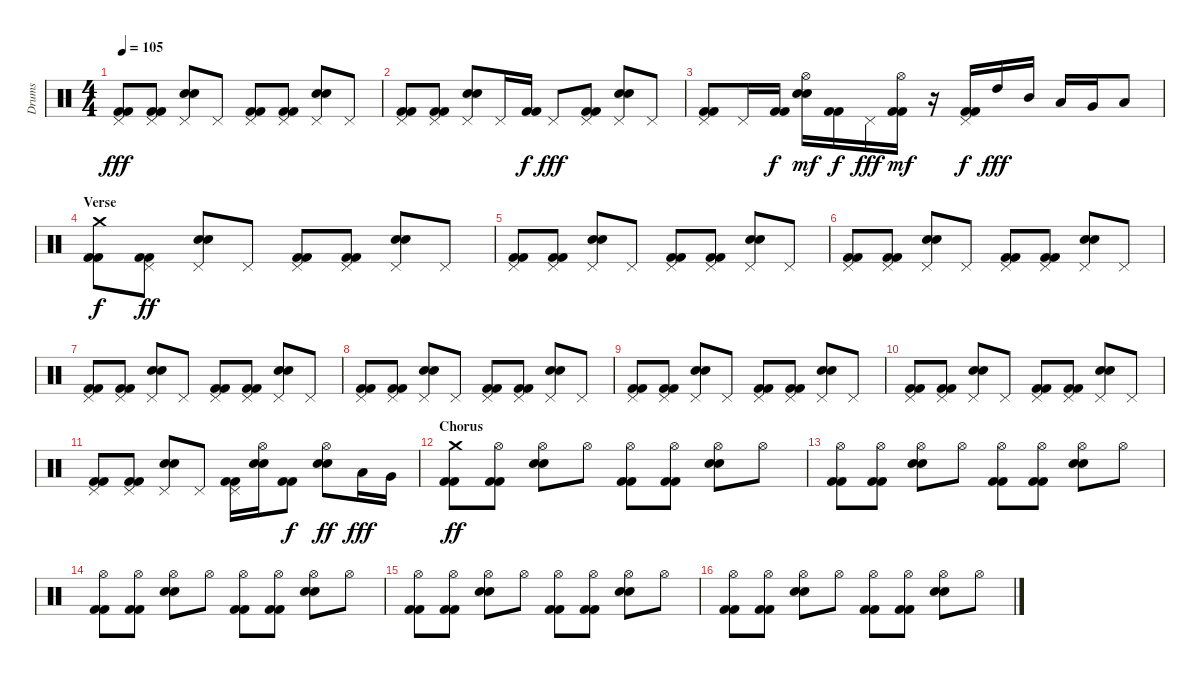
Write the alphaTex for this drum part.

\track ("Drums" "Drums") {instrument percussion}
\staff {score}
\articulation defaults
\ts (4 4)
\tempo 105
\clef neutral
\ks c
("Pedal Hi-Hat (hit)" "Kick (hit) 2" "Kick (hit) 2").8{dy fff} ("Pedal Hi-Hat (hit)" "Kick (hit) 2" "Kick (hit) 2").8 ("Pedal Hi-Hat (hit)" "Electric Snare (hit)" "Snare (hit) 2").8 "Pedal Hi-Hat (hit)".8 ("Pedal Hi-Hat (hit)" "Kick (hit) 2" "Kick (hit) 2").8 ("Pedal Hi-Hat (hit)" "Kick (hit) 2" "Kick (hit) 2").8 ("Pedal Hi-Hat (hit)" "Electric Snare (hit)" "Snare (hit) 2").8 "Pedal Hi-Hat (hit)".8 |
("Pedal Hi-Hat (hit)" "Kick (hit) 2" "Kick (hit) 2").8 ("Pedal Hi-Hat (hit)" "Kick (hit) 2" "Kick (hit) 2").8 ("Pedal Hi-Hat (hit)" "Electric Snare (hit)" "Snare (hit) 2").8 "Pedal Hi-Hat (hit)".16 ("Kick (hit) 2" "Kick (hit) 2").16{dy f} "Pedal Hi-Hat (hit)".8{dy fff} ("Pedal Hi-Hat (hit)" "Kick (hit) 2" "Kick (hit) 2").8 ("Pedal Hi-Hat (hit)" "Electric Snare (hit)" "Snare (hit) 2").8 "Pedal Hi-Hat (hit)".8 |
("Pedal Hi-Hat (hit)" "Kick (hit) 2" "Kick (hit) 2").8 "Pedal Hi-Hat (hit)".16 ("Kick (hit) 2" "Kick (hit) 2").16{dy f} ("Hi-Hat (open)" "Electric Snare (hit)" "Snare (hit) 2").16{dy mf} ("Kick (hit) 2" "Kick (hit) 2").16{dy f} "Pedal Hi-Hat (hit)".16{dy fff} ("Hi-Hat (open)" "Kick (hit) 2" "Kick (hit) 2").16{dy mf} r.16 ("Pedal Hi-Hat (hit)" "Kick (hit) 2" "Kick (hit) 2").16{dy f} "High Tom (hit)".16{dy fff} "Mid Tom (hit)".16 "Low Tom (hit)".16 "Very Low Tom (hit)".16 "Low Floor Tom (hit)".8 |
\section ("" "Verse")
("Crash medium (hit)" "Kick (hit) 2" "Kick (hit) 2").8{dy f} ("Pedal Hi-Hat (hit)" "Kick (hit) 2" "Kick (hit) 2").8{dy ff} ("Pedal Hi-Hat (hit)" "Electric Snare (hit)" "Snare (hit) 2").8 "Pedal Hi-Hat (hit)".8 ("Pedal Hi-Hat (hit)" "Kick (hit) 2" "Kick (hit) 2").8 ("Pedal Hi-Hat (hit)" "Kick (hit) 2" "Kick (hit) 2").8 ("Pedal Hi-Hat (hit)" "Electric Snare (hit)" "Snare (hit) 2").8 "Pedal Hi-Hat (hit)".8 |
("Pedal Hi-Hat (hit)" "Kick (hit) 2" "Kick (hit) 2").8 ("Pedal Hi-Hat (hit)" "Kick (hit) 2" "Kick (hit) 2").8 ("Pedal Hi-Hat (hit)" "Electric Snare (hit)" "Snare (hit) 2").8 "Pedal Hi-Hat (hit)".8 ("Pedal Hi-Hat (hit)" "Kick (hit) 2" "Kick (hit) 2").8 ("Pedal Hi-Hat (hit)" "Kick (hit) 2" "Kick (hit) 2").8 ("Pedal Hi-Hat (hit)" "Electric Snare (hit)" "Snare (hit) 2").8 "Pedal Hi-Hat (hit)".8 |
("Pedal Hi-Hat (hit)" "Kick (hit) 2" "Kick (hit) 2").8 ("Pedal Hi-Hat (hit)" "Kick (hit) 2" "Kick (hit) 2").8 ("Pedal Hi-Hat (hit)" "Electric Snare (hit)" "Snare (hit) 2").8 "Pedal Hi-Hat (hit)".8 ("Pedal Hi-Hat (hit)" "Kick (hit) 2" "Kick (hit) 2").8 ("Pedal Hi-Hat (hit)" "Kick (hit) 2" "Kick (hit) 2").8 ("Pedal Hi-Hat (hit)" "Electric Snare (hit)" "Snare (hit) 2").8 "Pedal Hi-Hat (hit)".8 |
("Pedal Hi-Hat (hit)" "Kick (hit) 2" "Kick (hit) 2").8 ("Pedal Hi-Hat (hit)" "Kick (hit) 2" "Kick (hit) 2").8 ("Pedal Hi-Hat (hit)" "Electric Snare (hit)" "Snare (hit) 2").8 "Pedal Hi-Hat (hit)".8 ("Pedal Hi-Hat (hit)" "Kick (hit) 2" "Kick (hit) 2").8 ("Pedal Hi-Hat (hit)" "Kick (hit) 2" "Kick (hit) 2").8 ("Pedal Hi-Hat (hit)" "Electric Snare (hit)" "Snare (hit) 2").8 "Pedal Hi-Hat (hit)".8 |
("Pedal Hi-Hat (hit)" "Kick (hit) 2" "Kick (hit) 2").8 ("Pedal Hi-Hat (hit)" "Kick (hit) 2" "Kick (hit) 2").8 ("Pedal Hi-Hat (hit)" "Electric Snare (hit)" "Snare (hit) 2").8 "Pedal Hi-Hat (hit)".8 ("Pedal Hi-Hat (hit)" "Kick (hit) 2" "Kick (hit) 2").8 ("Pedal Hi-Hat (hit)" "Kick (hit) 2" "Kick (hit) 2").8 ("Pedal Hi-Hat (hit)" "Electric Snare (hit)" "Snare (hit) 2").8 "Pedal Hi-Hat (hit)".8 |
("Pedal Hi-Hat (hit)" "Kick (hit) 2" "Kick (hit) 2").8 ("Pedal Hi-Hat (hit)" "Kick (hit) 2" "Kick (hit) 2").8 ("Pedal Hi-Hat (hit)" "Electric Snare (hit)" "Snare (hit) 2").8 "Pedal Hi-Hat (hit)".8 ("Pedal Hi-Hat (hit)" "Kick (hit) 2" "Kick (hit) 2").8 ("Pedal Hi-Hat (hit)" "Kick (hit) 2" "Kick (hit) 2").8 ("Pedal Hi-Hat (hit)" "Electric Snare (hit)" "Snare (hit) 2").8 "Pedal Hi-Hat (hit)".8 |
("Pedal Hi-Hat (hit)" "Kick (hit) 2" "Kick (hit) 2").8 ("Pedal Hi-Hat (hit)" "Kick (hit) 2" "Kick (hit) 2").8 ("Pedal Hi-Hat (hit)" "Electric Snare (hit)" "Snare (hit) 2").8 "Pedal Hi-Hat (hit)".8 ("Pedal Hi-Hat (hit)" "Kick (hit) 2" "Kick (hit) 2").8 ("Pedal Hi-Hat (hit)" "Kick (hit) 2" "Kick (hit) 2").8 ("Pedal Hi-Hat (hit)" "Electric Snare (hit)" "Snare (hit) 2").8 "Pedal Hi-Hat (hit)".8 |
("Pedal Hi-Hat (hit)" "Kick (hit) 2" "Kick (hit) 2").8 ("Pedal Hi-Hat (hit)" "Kick (hit) 2" "Kick (hit) 2").8 ("Pedal Hi-Hat (hit)" "Electric Snare (hit)" "Snare (hit) 2").8 "Pedal Hi-Hat (hit)".8 ("Pedal Hi-Hat (hit)" "Kick (hit) 2" "Kick (hit) 2").16 ("Hi-Hat (open)" "Electric Snare (hit)" "Snare (hit) 2").16 ("Kick (hit) 2" "Kick (hit) 2").8{dy f} ("Hi-Hat (open)" "Electric Snare (hit)" "Snare (hit) 2").8{dy ff} "Low Tom (hit)".16{dy fff} "Very Low Tom (hit)".16 |
\section ("" "Chorus")
("Crash medium (hit)" "Kick (hit) 2" "Kick (hit) 2").8{dy ff} ("Hi-Hat (open)" "Kick (hit) 2" "Kick (hit) 2").8 ("Hi-Hat (open)" "Electric Snare (hit)" "Snare (hit) 2").8 "Hi-Hat (open)".8 ("Hi-Hat (open)" "Kick (hit) 2" "Kick (hit) 2").8 ("Hi-Hat (open)" "Kick (hit) 2" "Kick (hit) 2").8 ("Hi-Hat (open)" "Electric Snare (hit)" "Snare (hit) 2").8 "Hi-Hat (open)".8 |
("Hi-Hat (open)" "Kick (hit) 2" "Kick (hit) 2").8 ("Hi-Hat (open)" "Kick (hit) 2" "Kick (hit) 2").8 ("Hi-Hat (open)" "Electric Snare (hit)" "Snare (hit) 2").8 "Hi-Hat (open)".8 ("Hi-Hat (open)" "Kick (hit) 2" "Kick (hit) 2").8 ("Hi-Hat (open)" "Kick (hit) 2" "Kick (hit) 2").8 ("Hi-Hat (open)" "Electric Snare (hit)" "Snare (hit) 2").8 "Hi-Hat (open)".8 |
("Hi-Hat (open)" "Kick (hit) 2" "Kick (hit) 2").8 ("Hi-Hat (open)" "Kick (hit) 2" "Kick (hit) 2").8 ("Hi-Hat (open)" "Electric Snare (hit)" "Snare (hit) 2").8 "Hi-Hat (open)".8 ("Hi-Hat (open)" "Kick (hit) 2" "Kick (hit) 2").8 ("Hi-Hat (open)" "Kick (hit) 2" "Kick (hit) 2").8 ("Hi-Hat (open)" "Electric Snare (hit)" "Snare (hit) 2").8 "Hi-Hat (open)".8 |
("Hi-Hat (open)" "Kick (hit) 2" "Kick (hit) 2").8 ("Hi-Hat (open)" "Kick (hit) 2" "Kick (hit) 2").8 ("Hi-Hat (open)" "Electric Snare (hit)" "Snare (hit) 2").8 "Hi-Hat (open)".8 ("Hi-Hat (open)" "Kick (hit) 2" "Kick (hit) 2").8 ("Hi-Hat (open)" "Kick (hit) 2" "Kick (hit) 2").8 ("Hi-Hat (open)" "Electric Snare (hit)" "Snare (hit) 2").8 "Hi-Hat (open)".8 |
("Hi-Hat (open)" "Kick (hit) 2" "Kick (hit) 2").8 ("Hi-Hat (open)" "Kick (hit) 2" "Kick (hit) 2").8 ("Hi-Hat (open)" "Electric Snare (hit)" "Snare (hit) 2").8 "Hi-Hat (open)".8 ("Hi-Hat (open)" "Kick (hit) 2" "Kick (hit) 2").8 ("Hi-Hat (open)" "Kick (hit) 2" "Kick (hit) 2").8 ("Hi-Hat (open)" "Electric Snare (hit)" "Snare (hit) 2").8 "Hi-Hat (open)".8
